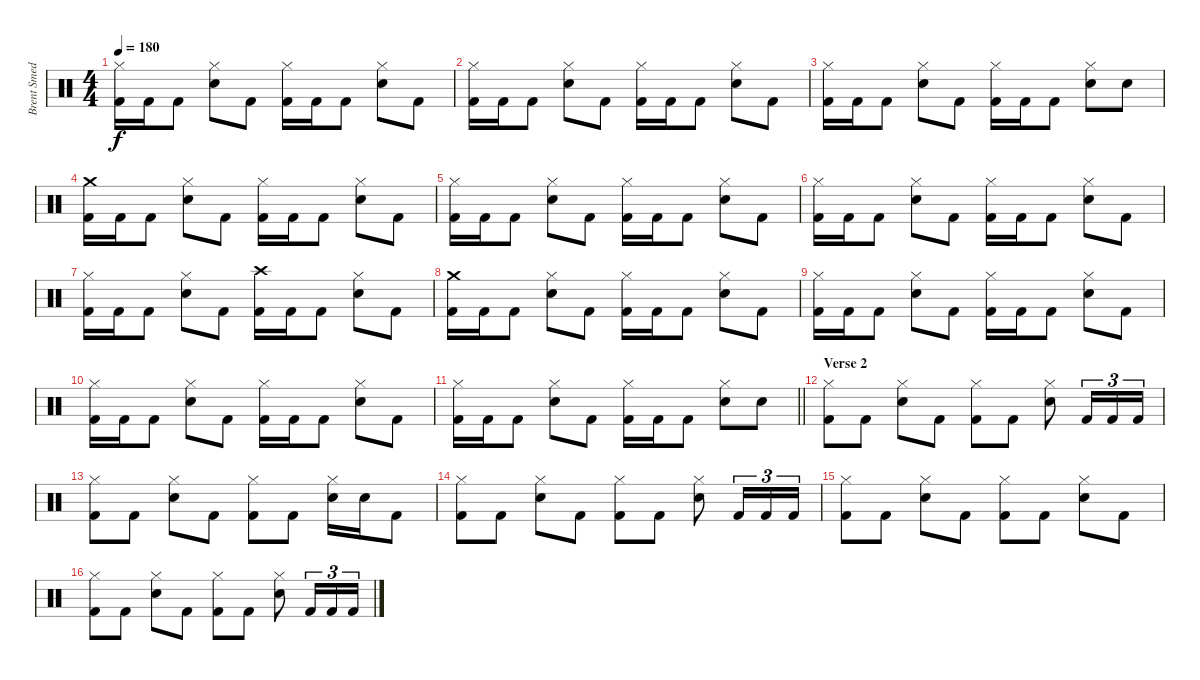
\track ("Brent Smedley" "Brent Smed") {instrument percussion}
\staff {score}
\articulation defaults
\ts (4 4)
\tempo 180
\clef neutral
\ks c
("Hi-Hat (closed)" "Kick (hit) 2").16{dy f} "Kick (hit) 2".16 "Kick (hit) 2".8 ("Hi-Hat (closed)" "Snare (hit) 2").8 "Kick (hit) 2".8 ("Hi-Hat (closed)" "Kick (hit) 2").16 "Kick (hit) 2".16 "Kick (hit) 2".8 ("Hi-Hat (closed)" "Snare (hit) 2").8 "Kick (hit) 2".8 |
("Hi-Hat (closed)" "Kick (hit) 2").16 "Kick (hit) 2".16 "Kick (hit) 2".8 ("Hi-Hat (closed)" "Snare (hit) 2").8 "Kick (hit) 2".8 ("Hi-Hat (closed)" "Kick (hit) 2").16 "Kick (hit) 2".16 "Kick (hit) 2".8 ("Hi-Hat (closed)" "Snare (hit) 2").8 "Kick (hit) 2".8 |
("Hi-Hat (closed)" "Kick (hit) 2").16 "Kick (hit) 2".16 "Kick (hit) 2".8 ("Hi-Hat (closed)" "Snare (hit) 2").8 "Kick (hit) 2".8 ("Hi-Hat (closed)" "Kick (hit) 2").16 "Kick (hit) 2".16 "Kick (hit) 2".8 ("Hi-Hat (closed)" "Snare (hit) 2").8 "Snare (hit) 2".8 |
("Crash medium (hit)" "Kick (hit) 2").16 "Kick (hit) 2".16 "Kick (hit) 2".8 ("Hi-Hat (closed)" "Snare (hit) 2").8 "Kick (hit) 2".8 ("Hi-Hat (closed)" "Kick (hit) 2").16 "Kick (hit) 2".16 "Kick (hit) 2".8 ("Hi-Hat (closed)" "Snare (hit) 2").8 "Kick (hit) 2".8 |
("Hi-Hat (closed)" "Kick (hit) 2").16 "Kick (hit) 2".16 "Kick (hit) 2".8 ("Hi-Hat (closed)" "Snare (hit) 2").8 "Kick (hit) 2".8 ("Hi-Hat (closed)" "Kick (hit) 2").16 "Kick (hit) 2".16 "Kick (hit) 2".8 ("Hi-Hat (closed)" "Snare (hit) 2").8 "Kick (hit) 2".8 |
("Hi-Hat (closed)" "Kick (hit) 2").16 "Kick (hit) 2".16 "Kick (hit) 2".8 ("Hi-Hat (closed)" "Snare (hit) 2").8 "Kick (hit) 2".8 ("Hi-Hat (closed)" "Kick (hit) 2").16 "Kick (hit) 2".16 "Kick (hit) 2".8 ("Hi-Hat (closed)" "Snare (hit) 2").8 "Kick (hit) 2".8 |
("Hi-Hat (closed)" "Kick (hit) 2").16 "Kick (hit) 2".16 "Kick (hit) 2".8 ("Hi-Hat (closed)" "Snare (hit) 2").8 "Kick (hit) 2".8 ("Crash high (hit)" "Kick (hit) 2").16 "Kick (hit) 2".16 "Kick (hit) 2".8 ("Hi-Hat (closed)" "Snare (hit) 2").8 "Kick (hit) 2".8 |
("Crash medium (hit)" "Kick (hit) 2").16 "Kick (hit) 2".16 "Kick (hit) 2".8 ("Hi-Hat (closed)" "Snare (hit) 2").8 "Kick (hit) 2".8 ("Hi-Hat (closed)" "Kick (hit) 2").16 "Kick (hit) 2".16 "Kick (hit) 2".8 ("Hi-Hat (closed)" "Snare (hit) 2").8 "Kick (hit) 2".8 |
("Hi-Hat (closed)" "Kick (hit) 2").16 "Kick (hit) 2".16 "Kick (hit) 2".8 ("Hi-Hat (closed)" "Snare (hit) 2").8 "Kick (hit) 2".8 ("Hi-Hat (closed)" "Kick (hit) 2").16 "Kick (hit) 2".16 "Kick (hit) 2".8 ("Hi-Hat (closed)" "Snare (hit) 2").8 "Kick (hit) 2".8 |
("Hi-Hat (closed)" "Kick (hit) 2").16 "Kick (hit) 2".16 "Kick (hit) 2".8 ("Hi-Hat (closed)" "Snare (hit) 2").8 "Kick (hit) 2".8 ("Hi-Hat (closed)" "Kick (hit) 2").16 "Kick (hit) 2".16 "Kick (hit) 2".8 ("Hi-Hat (closed)" "Snare (hit) 2").8 "Kick (hit) 2".8 |
\barLineRight lightlight
("Hi-Hat (closed)" "Kick (hit) 2").16 "Kick (hit) 2".16 "Kick (hit) 2".8 ("Hi-Hat (closed)" "Snare (hit) 2").8 "Kick (hit) 2".8 ("Hi-Hat (closed)" "Kick (hit) 2").16 "Kick (hit) 2".16 "Kick (hit) 2".8 ("Hi-Hat (closed)" "Snare (hit) 2").8 "Snare (hit) 2".8 |
\section ("" "Verse 2")
("Hi-Hat (closed)" "Kick (hit) 2").8 "Kick (hit) 2".8 ("Hi-Hat (closed)" "Snare (hit) 2").8 "Kick (hit) 2".8 ("Hi-Hat (closed)" "Kick (hit) 2").8 "Kick (hit) 2".8 ("Hi-Hat (closed)" "Snare (hit) 2").8 "Kick (hit) 2".16{tu (3 2)} "Kick (hit) 2".16{tu (3 2)} "Kick (hit) 2".16{tu (3 2)} |
("Hi-Hat (closed)" "Kick (hit) 2").8 "Kick (hit) 2".8 ("Hi-Hat (closed)" "Snare (hit) 2").8 "Kick (hit) 2".8 ("Hi-Hat (closed)" "Kick (hit) 2").8 "Kick (hit) 2".8 ("Hi-Hat (closed)" "Snare (hit) 2").16 "Snare (hit) 2".16 "Kick (hit) 2".8 |
("Hi-Hat (closed)" "Kick (hit) 2").8 "Kick (hit) 2".8 ("Hi-Hat (closed)" "Snare (hit) 2").8 "Kick (hit) 2".8 ("Hi-Hat (closed)" "Kick (hit) 2").8 "Kick (hit) 2".8 ("Hi-Hat (closed)" "Snare (hit) 2").8 "Kick (hit) 2".16{tu (3 2)} "Kick (hit) 2".16{tu (3 2)} "Kick (hit) 2".16{tu (3 2)} |
("Hi-Hat (closed)" "Kick (hit) 2").8 "Kick (hit) 2".8 ("Hi-Hat (closed)" "Snare (hit) 2").8 "Kick (hit) 2".8 ("Hi-Hat (closed)" "Kick (hit) 2").8 "Kick (hit) 2".8 ("Hi-Hat (closed)" "Snare (hit) 2").8 "Kick (hit) 2".8 |
("Hi-Hat (closed)" "Kick (hit) 2").8 "Kick (hit) 2".8 ("Hi-Hat (closed)" "Snare (hit) 2").8 "Kick (hit) 2".8 ("Hi-Hat (closed)" "Kick (hit) 2").8 "Kick (hit) 2".8 ("Hi-Hat (closed)" "Snare (hit) 2").8 "Kick (hit) 2".16{tu (3 2)} "Kick (hit) 2".16{tu (3 2)} "Kick (hit) 2".16{tu (3 2)}
